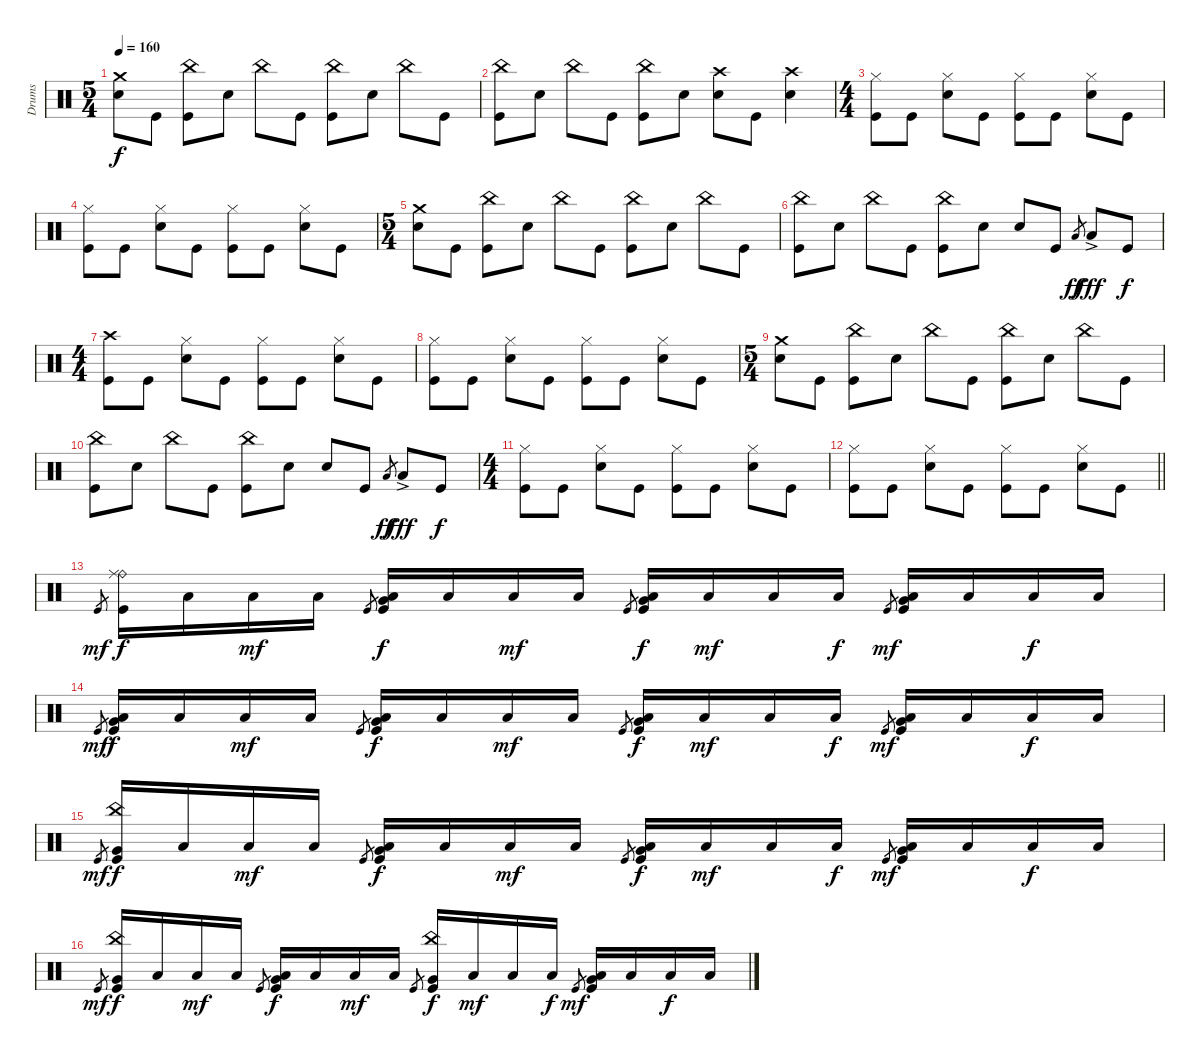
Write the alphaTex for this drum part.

\track ("Drums" "Drums") {instrument percussion}
\staff {score}
\articulation defaults
\ts (5 4)
\tempo 160
\clef neutral
\ks c
("Crash medium (hit)" "Snare (hit) 2").8{dy f} "Kick (hit)".8 ("China (hit)" "Kick (hit)").8 "Snare (hit) 2".8 "China (hit)".8 "Kick (hit)".8 ("China (hit)" "Kick (hit)").8 "Snare (hit) 2".8 "China (hit)".8 "Kick (hit)".8 |
("China (hit)" "Kick (hit)").8 "Snare (hit) 2".8 "China (hit)".8 "Kick (hit)".8 ("China (hit)" "Kick (hit)").8 "Snare (hit) 2".8 ("Crash high (hit)" "Snare (hit) 2").8 "Kick (hit)".8 ("Crash high (hit)" "Snare (hit) 2").4 |
\ts (4 4)
("Hi-Hat (closed)" "Kick (hit)").8 "Kick (hit)".8 ("Hi-Hat (closed)" "Snare (hit) 2").8 "Kick (hit)".8 ("Hi-Hat (closed)" "Kick (hit)").8 "Kick (hit)".8 ("Hi-Hat (closed)" "Snare (hit) 2").8 "Kick (hit)".8 |
("Hi-Hat (closed)" "Kick (hit)").8 "Kick (hit)".8 ("Hi-Hat (closed)" "Snare (hit) 2").8 "Kick (hit)".8 ("Hi-Hat (closed)" "Kick (hit)").8 "Kick (hit)".8 ("Hi-Hat (closed)" "Snare (hit) 2").8 "Kick (hit)".8 |
\ts (5 4)
("Crash medium (hit)" "Snare (hit) 2").8 "Kick (hit)".8 ("China (hit)" "Kick (hit)").8 "Snare (hit) 2".8 "China (hit)".8 "Kick (hit)".8 ("China (hit)" "Kick (hit)").8 "Snare (hit) 2".8 "China (hit)".8 "Kick (hit)".8 |
("China (hit)" "Kick (hit)").8 "Snare (hit) 2".8 "China (hit)".8 "Kick (hit)".8 ("China (hit)" "Kick (hit)").8 "Snare (hit) 2".8 "Snare (hit) 2".8 "Kick (hit)".8 "Low Floor Tom (hit)".8{gr dy ff} "Low Floor Tom (hit)"{ac}.8{dy fff} "Kick (hit)".8{dy f} |
\ts (4 4)
("Crash high (hit)" "Kick (hit)").8 "Kick (hit)".8 ("Hi-Hat (closed)" "Snare (hit) 2").8 "Kick (hit)".8 ("Hi-Hat (closed)" "Kick (hit)").8 "Kick (hit)".8 ("Hi-Hat (closed)" "Snare (hit) 2").8 "Kick (hit)".8 |
("Hi-Hat (closed)" "Kick (hit)").8 "Kick (hit)".8 ("Hi-Hat (closed)" "Snare (hit) 2").8 "Kick (hit)".8 ("Hi-Hat (closed)" "Kick (hit)").8 "Kick (hit)".8 ("Hi-Hat (closed)" "Snare (hit) 2").8 "Kick (hit)".8 |
\ts (5 4)
("Crash medium (hit)" "Snare (hit) 2").8 "Kick (hit)".8 ("China (hit)" "Kick (hit)").8 "Snare (hit) 2".8 "China (hit)".8 "Kick (hit)".8 ("China (hit)" "Kick (hit)").8 "Snare (hit) 2".8 "China (hit)".8 "Kick (hit)".8 |
("China (hit)" "Kick (hit)").8 "Snare (hit) 2".8 "China (hit)".8 "Kick (hit)".8 ("China (hit)" "Kick (hit)").8 "Snare (hit) 2".8 "Snare (hit) 2".8 "Kick (hit)".8 "Low Floor Tom (hit)".8{gr dy ff} "Low Floor Tom (hit)"{ac}.8{dy fff} "Kick (hit)".8{dy f} |
\ts (4 4)
("Hi-Hat (closed)" "Kick (hit)").8 "Kick (hit)".8 ("Hi-Hat (closed)" "Snare (hit) 2").8 "Kick (hit)".8 ("Hi-Hat (closed)" "Kick (hit)").8 "Kick (hit)".8 ("Hi-Hat (closed)" "Snare (hit) 2").8 "Kick (hit)".8 |
\barLineRight lightlight
("Hi-Hat (closed)" "Kick (hit)").8 "Kick (hit)".8 ("Hi-Hat (closed)" "Snare (hit) 2").8 "Kick (hit)".8 ("Hi-Hat (closed)" "Kick (hit)").8 "Kick (hit)".8 ("Hi-Hat (closed)" "Snare (hit) 2").8 "Kick (hit)".8 |
"Kick (hit)".8{gr dy mf} ("Ride (bell)" "Ride (middle)" "Kick (hit)").16{dy f} "Low Floor Tom (hit)".16 "Low Floor Tom (hit)".16{dy mf} "Low Floor Tom (hit)".16 "Kick (hit)".8{gr} ("Low Floor Tom (hit)" "Very Low Tom (hit)" "Kick (hit)").16{dy f} "Low Floor Tom (hit)".16 "Low Floor Tom (hit)".16{dy mf} "Low Floor Tom (hit)".16 "Kick (hit)".8{gr} ("Low Floor Tom (hit)" "Very Low Tom (hit)" "Kick (hit)").16{dy f} "Low Floor Tom (hit)".16{dy mf} "Low Floor Tom (hit)".16 "Low Floor Tom (hit)".16{dy f} "Kick (hit)".8{gr dy mf} ("Low Floor Tom (hit)" "Very Low Tom (hit)" "Kick (hit)").16 "Low Floor Tom (hit)".16 "Low Floor Tom (hit)".16{dy f} "Low Floor Tom (hit)".16 |
"Kick (hit)".8{gr dy mf} ("Low Floor Tom (hit)" "Very Low Tom (hit)" "Kick (hit)").16{dy f} "Low Floor Tom (hit)".16 "Low Floor Tom (hit)".16{dy mf} "Low Floor Tom (hit)".16 "Kick (hit)".8{gr} ("Low Floor Tom (hit)" "Very Low Tom (hit)" "Kick (hit)").16{dy f} "Low Floor Tom (hit)".16 "Low Floor Tom (hit)".16{dy mf} "Low Floor Tom (hit)".16 "Kick (hit)".8{gr} ("Low Floor Tom (hit)" "Very Low Tom (hit)" "Kick (hit)").16{dy f} "Low Floor Tom (hit)".16{dy mf} "Low Floor Tom (hit)".16 "Low Floor Tom (hit)".16{dy f} "Kick (hit)".8{gr dy mf} ("Low Floor Tom (hit)" "Very Low Tom (hit)" "Kick (hit)").16 "Low Floor Tom (hit)".16 "Low Floor Tom (hit)".16{dy f} "Low Floor Tom (hit)".16 |
"Kick (hit)".8{gr dy mf} ("China (hit)" "Very Low Tom (hit)" "Kick (hit)").16{dy f} "Low Floor Tom (hit)".16 "Low Floor Tom (hit)".16{dy mf} "Low Floor Tom (hit)".16 "Kick (hit)".8{gr} ("Low Floor Tom (hit)" "Very Low Tom (hit)" "Kick (hit)").16{dy f} "Low Floor Tom (hit)".16 "Low Floor Tom (hit)".16{dy mf} "Low Floor Tom (hit)".16 "Kick (hit)".8{gr} ("Low Floor Tom (hit)" "Very Low Tom (hit)" "Kick (hit)").16{dy f} "Low Floor Tom (hit)".16{dy mf} "Low Floor Tom (hit)".16 "Low Floor Tom (hit)".16{dy f} "Kick (hit)".8{gr dy mf} ("Low Floor Tom (hit)" "Very Low Tom (hit)" "Kick (hit)").16 "Low Floor Tom (hit)".16 "Low Floor Tom (hit)".16{dy f} "Low Floor Tom (hit)".16 |
"Kick (hit)".8{gr dy mf} ("China (hit)" "Very Low Tom (hit)" "Kick (hit)").16{dy f} "Low Floor Tom (hit)".16 "Low Floor Tom (hit)".16{dy mf} "Low Floor Tom (hit)".16 "Kick (hit)".8{gr} ("Low Floor Tom (hit)" "Very Low Tom (hit)" "Kick (hit)").16{dy f} "Low Floor Tom (hit)".16 "Low Floor Tom (hit)".16{dy mf} "Low Floor Tom (hit)".16 "Kick (hit)".8{gr} ("China (hit)" "Very Low Tom (hit)" "Kick (hit)").16{dy f} "Low Floor Tom (hit)".16{dy mf} "Low Floor Tom (hit)".16 "Low Floor Tom (hit)".16{dy f} "Kick (hit)".8{gr dy mf} ("Low Floor Tom (hit)" "Very Low Tom (hit)" "Kick (hit)").16 "Low Floor Tom (hit)".16 "Low Floor Tom (hit)".16{dy f} "Low Floor Tom (hit)".16
